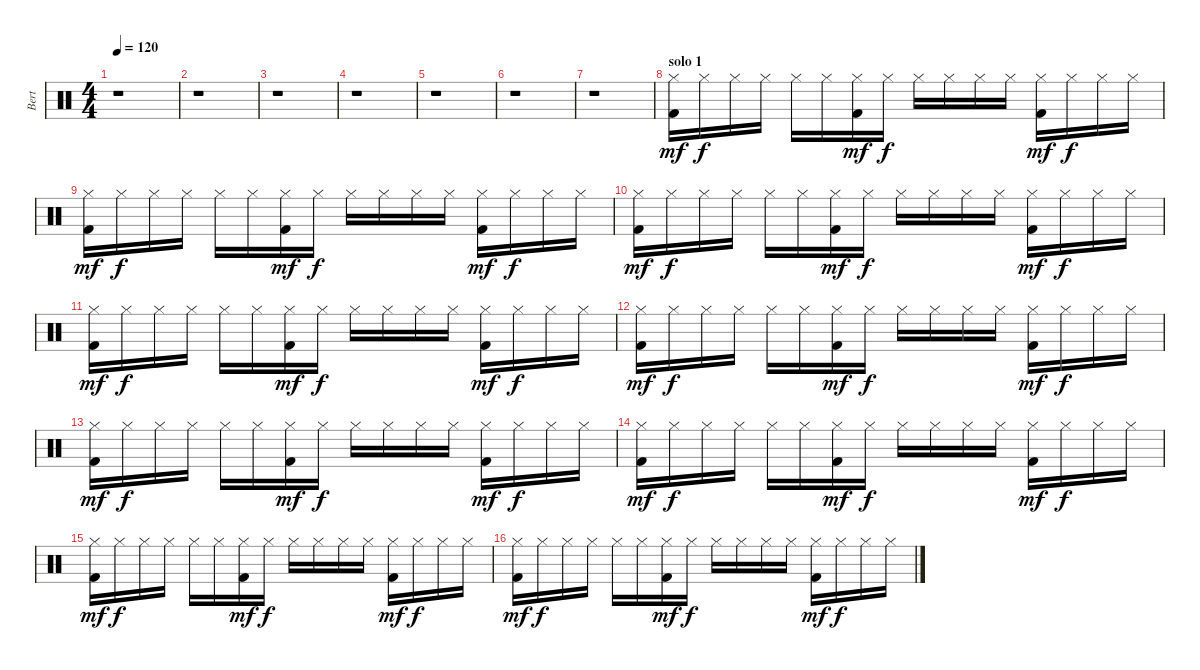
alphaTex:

\track ("Bert" "Bert") {instrument percussion}
\staff {score}
\articulation defaults
\ts (4 4)
\tempo 120
\clef neutral
\ks c
r.1{dy f} |
r.1 |
r.1 |
r.1 |
r.1 |
r.1 |
r.1 |
\section ("" "solo 1")
("Hi-Hat (closed)" "Kick (hit) 2").16{dy mf} "Hi-Hat (closed)".16{dy f} "Hi-Hat (closed)".16 "Hi-Hat (closed)".16 "Hi-Hat (closed)".16 "Hi-Hat (closed)".16 ("Hi-Hat (closed)" "Kick (hit) 2").16{dy mf} "Hi-Hat (closed)".16{dy f} "Hi-Hat (closed)".16 "Hi-Hat (closed)".16 "Hi-Hat (closed)".16 "Hi-Hat (closed)".16 ("Hi-Hat (closed)" "Kick (hit) 2").16{dy mf} "Hi-Hat (closed)".16{dy f} "Hi-Hat (closed)".16 "Hi-Hat (closed)".16 |
("Hi-Hat (closed)" "Kick (hit) 2").16{dy mf} "Hi-Hat (closed)".16{dy f} "Hi-Hat (closed)".16 "Hi-Hat (closed)".16 "Hi-Hat (closed)".16 "Hi-Hat (closed)".16 ("Hi-Hat (closed)" "Kick (hit) 2").16{dy mf} "Hi-Hat (closed)".16{dy f} "Hi-Hat (closed)".16 "Hi-Hat (closed)".16 "Hi-Hat (closed)".16 "Hi-Hat (closed)".16 ("Hi-Hat (closed)" "Kick (hit) 2").16{dy mf} "Hi-Hat (closed)".16{dy f} "Hi-Hat (closed)".16 "Hi-Hat (closed)".16 |
("Hi-Hat (closed)" "Kick (hit) 2").16{dy mf} "Hi-Hat (closed)".16{dy f} "Hi-Hat (closed)".16 "Hi-Hat (closed)".16 "Hi-Hat (closed)".16 "Hi-Hat (closed)".16 ("Hi-Hat (closed)" "Kick (hit) 2").16{dy mf} "Hi-Hat (closed)".16{dy f} "Hi-Hat (closed)".16 "Hi-Hat (closed)".16 "Hi-Hat (closed)".16 "Hi-Hat (closed)".16 ("Hi-Hat (closed)" "Kick (hit) 2").16{dy mf} "Hi-Hat (closed)".16{dy f} "Hi-Hat (closed)".16 "Hi-Hat (closed)".16 |
("Hi-Hat (closed)" "Kick (hit) 2").16{dy mf} "Hi-Hat (closed)".16{dy f} "Hi-Hat (closed)".16 "Hi-Hat (closed)".16 "Hi-Hat (closed)".16 "Hi-Hat (closed)".16 ("Hi-Hat (closed)" "Kick (hit) 2").16{dy mf} "Hi-Hat (closed)".16{dy f} "Hi-Hat (closed)".16 "Hi-Hat (closed)".16 "Hi-Hat (closed)".16 "Hi-Hat (closed)".16 ("Hi-Hat (closed)" "Kick (hit) 2").16{dy mf} "Hi-Hat (closed)".16{dy f} "Hi-Hat (closed)".16 "Hi-Hat (closed)".16 |
("Hi-Hat (closed)" "Kick (hit) 2").16{dy mf} "Hi-Hat (closed)".16{dy f} "Hi-Hat (closed)".16 "Hi-Hat (closed)".16 "Hi-Hat (closed)".16 "Hi-Hat (closed)".16 ("Hi-Hat (closed)" "Kick (hit) 2").16{dy mf} "Hi-Hat (closed)".16{dy f} "Hi-Hat (closed)".16 "Hi-Hat (closed)".16 "Hi-Hat (closed)".16 "Hi-Hat (closed)".16 ("Hi-Hat (closed)" "Kick (hit) 2").16{dy mf} "Hi-Hat (closed)".16{dy f} "Hi-Hat (closed)".16 "Hi-Hat (closed)".16 |
("Hi-Hat (closed)" "Kick (hit) 2").16{dy mf} "Hi-Hat (closed)".16{dy f} "Hi-Hat (closed)".16 "Hi-Hat (closed)".16 "Hi-Hat (closed)".16 "Hi-Hat (closed)".16 ("Hi-Hat (closed)" "Kick (hit) 2").16{dy mf} "Hi-Hat (closed)".16{dy f} "Hi-Hat (closed)".16 "Hi-Hat (closed)".16 "Hi-Hat (closed)".16 "Hi-Hat (closed)".16 ("Hi-Hat (closed)" "Kick (hit) 2").16{dy mf} "Hi-Hat (closed)".16{dy f} "Hi-Hat (closed)".16 "Hi-Hat (closed)".16 |
("Hi-Hat (closed)" "Kick (hit) 2").16{dy mf} "Hi-Hat (closed)".16{dy f} "Hi-Hat (closed)".16 "Hi-Hat (closed)".16 "Hi-Hat (closed)".16 "Hi-Hat (closed)".16 ("Hi-Hat (closed)" "Kick (hit) 2").16{dy mf} "Hi-Hat (closed)".16{dy f} "Hi-Hat (closed)".16 "Hi-Hat (closed)".16 "Hi-Hat (closed)".16 "Hi-Hat (closed)".16 ("Hi-Hat (closed)" "Kick (hit) 2").16{dy mf} "Hi-Hat (closed)".16{dy f} "Hi-Hat (closed)".16 "Hi-Hat (closed)".16 |
("Hi-Hat (closed)" "Kick (hit) 2").16{dy mf} "Hi-Hat (closed)".16{dy f} "Hi-Hat (closed)".16 "Hi-Hat (closed)".16 "Hi-Hat (closed)".16 "Hi-Hat (closed)".16 ("Hi-Hat (closed)" "Kick (hit) 2").16{dy mf} "Hi-Hat (closed)".16{dy f} "Hi-Hat (closed)".16 "Hi-Hat (closed)".16 "Hi-Hat (closed)".16 "Hi-Hat (closed)".16 ("Hi-Hat (closed)" "Kick (hit) 2").16{dy mf} "Hi-Hat (closed)".16{dy f} "Hi-Hat (closed)".16 "Hi-Hat (closed)".16 |
("Hi-Hat (closed)" "Kick (hit) 2").16{dy mf} "Hi-Hat (closed)".16{dy f} "Hi-Hat (closed)".16 "Hi-Hat (closed)".16 "Hi-Hat (closed)".16 "Hi-Hat (closed)".16 ("Hi-Hat (closed)" "Kick (hit) 2").16{dy mf} "Hi-Hat (closed)".16{dy f} "Hi-Hat (closed)".16 "Hi-Hat (closed)".16 "Hi-Hat (closed)".16 "Hi-Hat (closed)".16 ("Hi-Hat (closed)" "Kick (hit) 2").16{dy mf} "Hi-Hat (closed)".16{dy f} "Hi-Hat (closed)".16 "Hi-Hat (closed)".16
